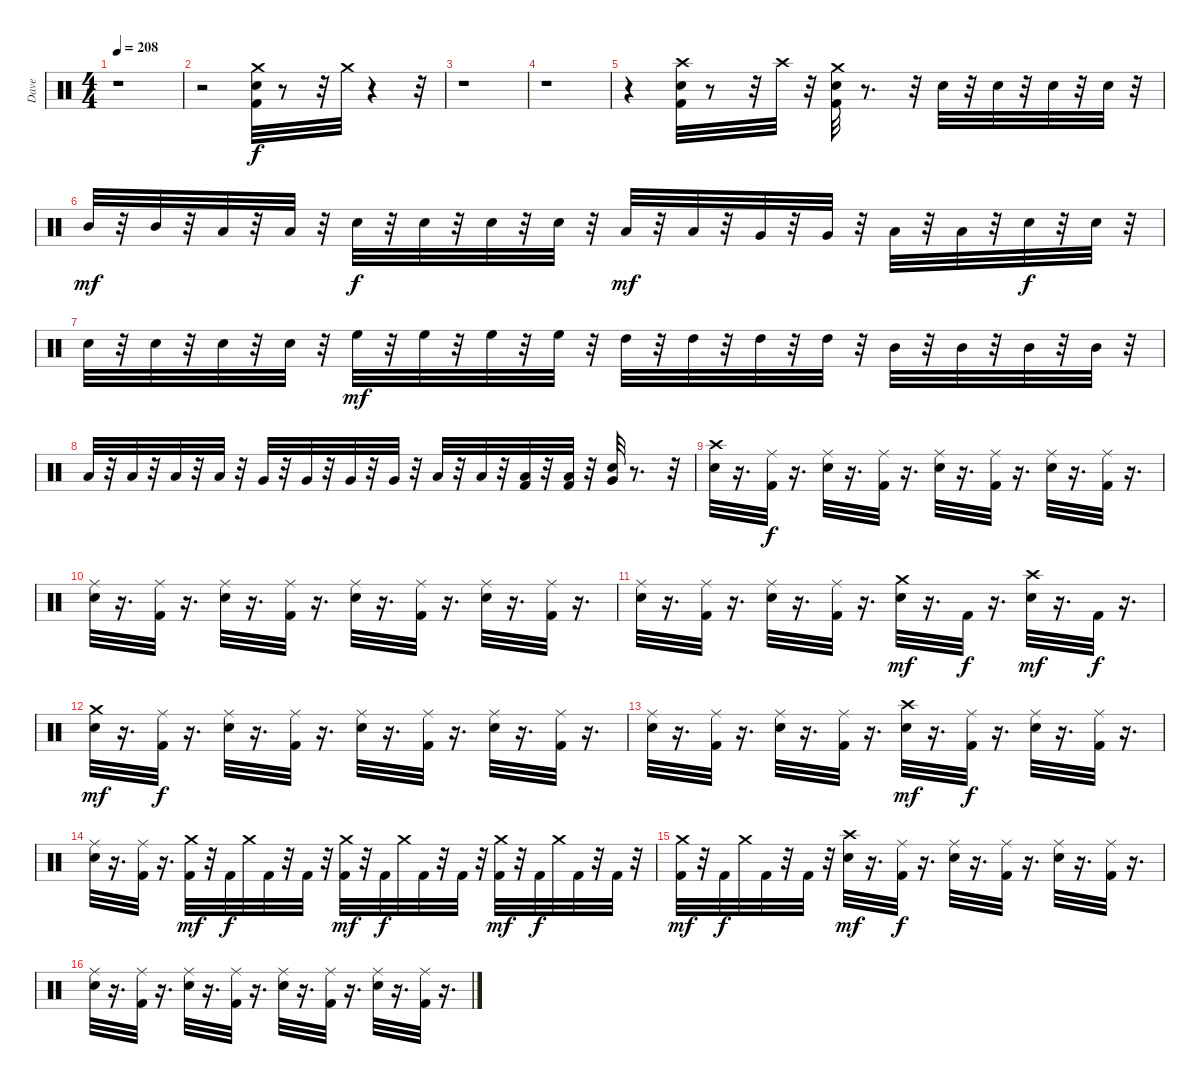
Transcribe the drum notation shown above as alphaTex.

\track ("Dave" "Dave") {instrument percussion}
\staff {score}
\articulation defaults
\ts (4 4)
\tempo 208
\clef neutral
\ks c
r.1{dy f} |
r.2 ("Kick (hit) 2" "Snare (hit) 2" "Crash medium (hit)").32 r.8 r.32 "Crash medium (hit)".32 r.4 r.32 |
r.1 |
r.1 |
r.4 ("Kick (hit) 2" "Snare (hit) 2" "Crash high (hit)").32 r.8 r.32 "Crash high (hit)".32 r.32 ("Kick (hit) 2" "Snare (hit) 2" "Crash medium (hit)").32 r.8{d} r.32 "Snare (hit) 2".32 r.32 "Snare (hit) 2".32 r.32 "Snare (hit) 2".32 r.32 "Snare (hit) 2".32 r.32 |
"Mid Tom (hit)".32{dy mf} r.32 "Mid Tom (hit)".32 r.32 "Low Tom (hit)".32 r.32 "Low Tom (hit)".32 r.32 "Snare (hit) 2".32{dy f} r.32 "Snare (hit) 2".32 r.32 "Snare (hit) 2".32 r.32 "Snare (hit) 2".32 r.32 "Low Tom (hit)".32{dy mf} r.32 "Low Tom (hit)".32 r.32 "Very Low Tom (hit)".32 r.32 "Very Low Tom (hit)".32 r.32 "Low Floor Tom (hit)".32 r.32 "Low Floor Tom (hit)".32 r.32 "Snare (hit) 2".32{dy f} r.32 "Snare (hit) 2".32 r.32 |
"Snare (hit) 2".32 r.32 "Snare (hit) 2".32 r.32 "Snare (hit) 2".32 r.32 "Snare (hit) 2".32 r.32 "High Floor Tom (hit)".32{dy mf} r.32 "High Floor Tom (hit)".32 r.32 "High Floor Tom (hit)".32 r.32 "High Floor Tom (hit)".32 r.32 "High Tom (hit)".32 r.32 "High Tom (hit)".32 r.32 "High Tom (hit)".32 r.32 "High Tom (hit)".32 r.32 "Mid Tom (hit)".32 r.32 "Mid Tom (hit)".32 r.32 "Mid Tom (hit)".32 r.32 "Mid Tom (hit)".32 r.32 |
"Low Tom (hit)".32 r.32 "Low Tom (hit)".32 r.32 "Low Tom (hit)".32 r.32 "Low Tom (hit)".32 r.32 "Very Low Tom (hit)".32 r.32 "Very Low Tom (hit)".32 r.32 "Very Low Tom (hit)".32 r.32 "Very Low Tom (hit)".32 r.32 "Low Floor Tom (hit)".32 r.32 "Low Floor Tom (hit)".32 r.32 ("Kick (hit) 2" "Low Floor Tom (hit)").32 r.32 ("Kick (hit) 2" "Low Floor Tom (hit)").32 r.32 ("Snare (hit) 2" "Very Low Tom (hit)").32 r.8{d} r.32 |
("Snare (hit) 2" "Crash high (hit)").32 r.16{d} ("Kick (hit) 2" "Ride (middle)").32{dy f} r.16{d} ("Snare (hit) 2" "Ride (middle)").32 r.16{d} ("Kick (hit) 2" "Ride (middle)").32 r.16{d} ("Snare (hit) 2" "Ride (middle)").32 r.16{d} ("Kick (hit) 2" "Ride (middle)").32 r.16{d} ("Snare (hit) 2" "Ride (middle)").32 r.16{d} ("Kick (hit) 2" "Ride (middle)").32 r.16{d} |
("Snare (hit) 2" "Ride (middle)").32 r.16{d} ("Kick (hit) 2" "Ride (middle)").32 r.16{d} ("Snare (hit) 2" "Ride (middle)").32 r.16{d} ("Kick (hit) 2" "Ride (middle)").32 r.16{d} ("Snare (hit) 2" "Ride (middle)").32 r.16{d} ("Kick (hit) 2" "Ride (middle)").32 r.16{d} ("Snare (hit) 2" "Ride (middle)").32 r.16{d} ("Kick (hit) 2" "Ride (middle)").32 r.16{d} |
("Snare (hit) 2" "Ride (middle)").32 r.16{d} ("Kick (hit) 2" "Ride (middle)").32 r.16{d} ("Snare (hit) 2" "Ride (middle)").32 r.16{d} ("Kick (hit) 2" "Ride (middle)").32 r.16{d} ("Snare (hit) 2" "Crash medium (hit)").32{dy mf} r.16{d} "Kick (hit) 2".32{dy f} r.16{d} ("Snare (hit) 2" "Crash high (hit)").32{dy mf} r.16{d} "Kick (hit) 2".32{dy f} r.16{d} |
("Snare (hit) 2" "Crash medium (hit)").32{dy mf} r.16{d} ("Kick (hit) 2" "Ride (middle)").32{dy f} r.16{d} ("Snare (hit) 2" "Ride (middle)").32 r.16{d} ("Kick (hit) 2" "Ride (middle)").32 r.16{d} ("Snare (hit) 2" "Ride (middle)").32 r.16{d} ("Kick (hit) 2" "Ride (middle)").32 r.16{d} ("Snare (hit) 2" "Ride (middle)").32 r.16{d} ("Kick (hit) 2" "Ride (middle)").32 r.16{d} |
("Snare (hit) 2" "Ride (middle)").32 r.16{d} ("Kick (hit) 2" "Ride (middle)").32 r.16{d} ("Snare (hit) 2" "Ride (middle)").32 r.16{d} ("Kick (hit) 2" "Ride (middle)").32 r.16{d} ("Snare (hit) 2" "Crash high (hit)").32{dy mf} r.16{d} ("Kick (hit) 2" "Ride (middle)").32{dy f} r.16{d} ("Snare (hit) 2" "Ride (middle)").32 r.16{d} ("Kick (hit) 2" "Ride (middle)").32 r.16{d} |
("Snare (hit) 2" "Ride (middle)").32 r.16{d} ("Kick (hit) 2" "Ride (middle)").32 r.16{d} ("Kick (hit) 2" "Crash medium (hit)").32{dy mf} r.32 "Kick (hit) 2".32{dy f} "Crash medium (hit)".32 "Kick (hit) 2".32 r.32 "Kick (hit) 2".32 r.32 ("Kick (hit) 2" "Crash medium (hit)").32{dy mf} r.32 "Kick (hit) 2".32{dy f} "Crash medium (hit)".32 "Kick (hit) 2".32 r.32 "Kick (hit) 2".32 r.32 ("Kick (hit) 2" "Crash medium (hit)").32{dy mf} r.32 "Kick (hit) 2".32{dy f} "Crash medium (hit)".32 "Kick (hit) 2".32 r.32 "Kick (hit) 2".32 r.32 |
("Kick (hit) 2" "Crash medium (hit)").32{dy mf} r.32 "Kick (hit) 2".32{dy f} "Crash medium (hit)".32 "Kick (hit) 2".32 r.32 "Kick (hit) 2".32 r.32 ("Snare (hit) 2" "Crash high (hit)").32{dy mf} r.16{d} ("Kick (hit) 2" "Ride (middle)").32{dy f} r.16{d} ("Snare (hit) 2" "Ride (middle)").32 r.16{d} ("Kick (hit) 2" "Ride (middle)").32 r.16{d} ("Snare (hit) 2" "Ride (middle)").32 r.16{d} ("Kick (hit) 2" "Ride (middle)").32 r.16{d} |
("Snare (hit) 2" "Ride (middle)").32 r.16{d} ("Kick (hit) 2" "Ride (middle)").32 r.16{d} ("Snare (hit) 2" "Ride (middle)").32 r.16{d} ("Kick (hit) 2" "Ride (middle)").32 r.16{d} ("Snare (hit) 2" "Ride (middle)").32 r.16{d} ("Kick (hit) 2" "Ride (middle)").32 r.16{d} ("Snare (hit) 2" "Ride (middle)").32 r.16{d} ("Kick (hit) 2" "Ride (middle)").32 r.16{d}
